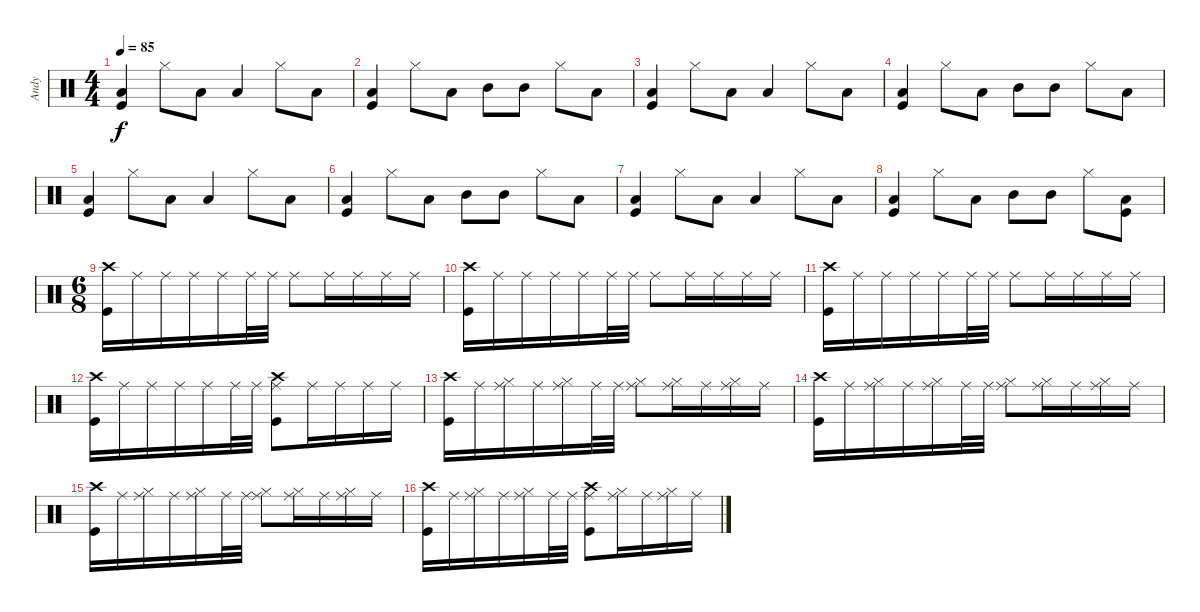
\track ("Andy" "Andy") {instrument percussion}
\staff {score}
\articulation defaults
\ts (4 4)
\tempo 85
\clef neutral
\ks c
("Low Tom (hit)" "Kick (hit)").4{dy f} "Hi-Hat (closed)".8 "Low Tom (hit)".8 "Low Tom (hit)".4 "Hi-Hat (closed)".8 "Low Tom (hit)".8 |
("Low Tom (hit)" "Kick (hit)").4 "Hi-Hat (closed)".8 "Low Tom (hit)".8 "Mid Tom (hit)".8 "Mid Tom (hit)".8 "Hi-Hat (closed)".8 "Low Tom (hit)".8 |
("Low Tom (hit)" "Kick (hit)").4 "Hi-Hat (closed)".8 "Low Tom (hit)".8 "Low Tom (hit)".4 "Hi-Hat (closed)".8 "Low Tom (hit)".8 |
("Low Tom (hit)" "Kick (hit)").4 "Hi-Hat (closed)".8 "Low Tom (hit)".8 "Mid Tom (hit)".8 "Mid Tom (hit)".8 "Hi-Hat (closed)".8 "Low Tom (hit)".8 |
("Low Tom (hit)" "Kick (hit)").4 "Hi-Hat (closed)".8 "Low Tom (hit)".8 "Low Tom (hit)".4 "Hi-Hat (closed)".8 "Low Tom (hit)".8 |
("Low Tom (hit)" "Kick (hit)").4 "Hi-Hat (closed)".8 "Low Tom (hit)".8 "Mid Tom (hit)".8 "Mid Tom (hit)".8 "Hi-Hat (closed)".8 "Low Tom (hit)".8 |
("Low Tom (hit)" "Kick (hit)").4 "Hi-Hat (closed)".8 "Low Tom (hit)".8 "Low Tom (hit)".4 "Hi-Hat (closed)".8 "Low Tom (hit)".8 |
("Low Tom (hit)" "Kick (hit)").4 "Hi-Hat (closed)".8 "Low Tom (hit)".8 "Mid Tom (hit)".8 "Mid Tom (hit)".8 "Hi-Hat (closed)".8 ("Low Tom (hit)" "Kick (hit)").8 |
\ts (6 8)
("Kick (hit)" "Crash high (hit)").16 "Ride (middle)".16 "Ride (middle)".16 "Ride (middle)".16 "Ride (middle)".16 "Ride (middle)".32 "Ride (middle)".32 "Ride (middle)".8 "Ride (middle)".16 "Ride (middle)".16 "Ride (middle)".16 "Ride (middle)".16 |
("Kick (hit)" "Crash high (hit)").16 "Ride (middle)".16 "Ride (middle)".16 "Ride (middle)".16 "Ride (middle)".16 "Ride (middle)".32 "Ride (middle)".32 "Ride (middle)".8 "Ride (middle)".16 "Ride (middle)".16 "Ride (middle)".16 "Ride (middle)".16 |
("Kick (hit)" "Crash high (hit)").16 "Ride (middle)".16 "Ride (middle)".16 "Ride (middle)".16 "Ride (middle)".16 "Ride (middle)".32 "Ride (middle)".32 "Ride (middle)".8 "Ride (middle)".16 "Ride (middle)".16 "Ride (middle)".16 "Ride (middle)".16 |
("Kick (hit)" "Crash high (hit)").16 "Ride (middle)".16 "Ride (middle)".16 "Ride (middle)".16 "Ride (middle)".16 "Ride (middle)".32 "Ride (middle)".32 ("Ride (middle)" "Kick (hit)" "Crash high (hit)").8 "Ride (middle)".16 "Ride (middle)".16 "Ride (middle)".16 "Ride (middle)".16 |
("Kick (hit)" "Crash high (hit)").16 "Ride (middle)".16 ("Ride (middle)" "Hi-Hat (closed)").16 "Ride (middle)".16 ("Ride (middle)" "Hi-Hat (closed)").16 "Ride (middle)".32 "Ride (middle)".32 ("Ride (middle)" "Hi-Hat (closed)").8 ("Ride (middle)" "Hi-Hat (closed)").16 "Ride (middle)".16 ("Ride (middle)" "Hi-Hat (closed)").16 "Ride (middle)".16 |
("Kick (hit)" "Crash high (hit)").16 "Ride (middle)".16 ("Ride (middle)" "Hi-Hat (closed)").16 "Ride (middle)".16 ("Ride (middle)" "Hi-Hat (closed)").16 "Ride (middle)".32 "Ride (middle)".32 ("Ride (middle)" "Hi-Hat (closed)").8 ("Ride (middle)" "Hi-Hat (closed)").16 "Ride (middle)".16 ("Ride (middle)" "Hi-Hat (closed)").16 "Ride (middle)".16 |
("Kick (hit)" "Crash high (hit)").16 "Ride (middle)".16 ("Ride (middle)" "Hi-Hat (closed)").16 "Ride (middle)".16 ("Ride (middle)" "Hi-Hat (closed)").16 "Ride (middle)".32 "Ride (middle)".32 ("Ride (middle)" "Hi-Hat (closed)").8 ("Ride (middle)" "Hi-Hat (closed)").16 "Ride (middle)".16 ("Ride (middle)" "Hi-Hat (closed)").16 "Ride (middle)".16 |
("Kick (hit)" "Crash high (hit)").16 "Ride (middle)".16 ("Ride (middle)" "Hi-Hat (closed)").16 "Ride (middle)".16 ("Ride (middle)" "Hi-Hat (closed)").16 "Ride (middle)".32 "Ride (middle)".32 ("Ride (middle)" "Kick (hit)" "Crash high (hit)").8 ("Ride (middle)" "Hi-Hat (closed)").16 "Ride (middle)".16 ("Ride (middle)" "Hi-Hat (closed)").16 "Ride (middle)".16
